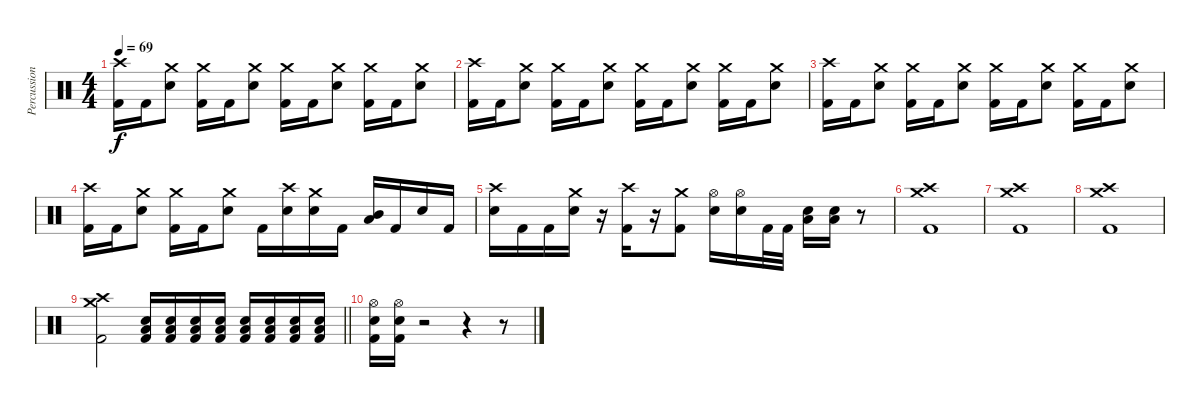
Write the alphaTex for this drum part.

\track ("Percussion" "Percussion") {instrument percussion}
\staff {score}
\articulation defaults
\ts (4 4)
\tempo 69
\clef neutral
\ks c
("Crash high (hit)" "Kick (hit) 2").16{dy f} "Kick (hit) 2".16 ("Crash medium (hit)" "Electric Snare (hit)").8 ("Crash medium (hit)" "Kick (hit) 2").16 "Kick (hit) 2".16 ("Crash medium (hit)" "Electric Snare (hit)").8 ("Crash medium (hit)" "Kick (hit) 2").16 "Kick (hit) 2".16 ("Crash medium (hit)" "Electric Snare (hit)").8 ("Crash medium (hit)" "Kick (hit) 2").16 "Kick (hit) 2".16 ("Crash medium (hit)" "Electric Snare (hit)").8 |
("Crash high (hit)" "Kick (hit) 2").16 "Kick (hit) 2".16 ("Crash medium (hit)" "Electric Snare (hit)").8 ("Crash medium (hit)" "Kick (hit) 2").16 "Kick (hit) 2".16 ("Crash medium (hit)" "Electric Snare (hit)").8 ("Crash medium (hit)" "Kick (hit) 2").16 "Kick (hit) 2".16 ("Crash medium (hit)" "Electric Snare (hit)").8 ("Crash medium (hit)" "Kick (hit) 2").16 "Kick (hit) 2".16 ("Crash medium (hit)" "Electric Snare (hit)").8 |
("Crash high (hit)" "Kick (hit) 2").16 "Kick (hit) 2".16 ("Crash medium (hit)" "Electric Snare (hit)").8 ("Crash medium (hit)" "Kick (hit) 2").16 "Kick (hit) 2".16 ("Crash medium (hit)" "Electric Snare (hit)").8 ("Crash medium (hit)" "Kick (hit) 2").16 "Kick (hit) 2".16 ("Crash medium (hit)" "Electric Snare (hit)").8 ("Crash medium (hit)" "Kick (hit) 2").16 "Kick (hit) 2".16 ("Crash medium (hit)" "Electric Snare (hit)").8 |
("Crash high (hit)" "Kick (hit) 2").16 "Kick (hit) 2".16 ("Crash medium (hit)" "Electric Snare (hit)").8 ("Crash medium (hit)" "Kick (hit) 2").16 "Kick (hit) 2".16 ("Crash medium (hit)" "Electric Snare (hit)").8 "Kick (hit) 2".16 ("Crash high (hit)" "Electric Snare (hit)").16 ("Crash medium (hit)" "Electric Snare (hit)").16 "Kick (hit) 2".16 ("Low Tom (hit)" "Mid Tom (hit)").16 "Kick (hit) 2".16 "Electric Snare (hit)".16 "Kick (hit) 2".16 |
("Crash high (hit)" "Electric Snare (hit)").16 "Kick (hit) 2".16 "Kick (hit) 2".16 ("Crash medium (hit)" "Electric Snare (hit)").16 r.16 ("Crash high (hit)" "Kick (hit) 2").16 r.16 ("Crash medium (hit)" "Kick (hit) 2").8 ("Hi-Hat (open)" "Electric Snare (hit)").16 ("Hi-Hat (open)" "Electric Snare (hit)").16 "Kick (hit) 2".32 "Kick (hit) 2".32 ("Low Floor Tom (hit)" "Electric Snare (hit)").16 ("Low Floor Tom (hit)" "Electric Snare (hit)").16 r.8 |
("Crash high (hit)" "Crash medium (hit)" "Kick (hit) 2").1 |
("Crash high (hit)" "Crash medium (hit)" "Kick (hit) 2").1 |
("Crash high (hit)" "Crash medium (hit)" "Kick (hit) 2").1 |
\barLineRight lightlight
("Crash high (hit)" "Crash medium (hit)" "Kick (hit) 2").2 ("Low Floor Tom (hit)" "Electric Snare (hit)" "Kick (hit) 2").16 ("Low Floor Tom (hit)" "Electric Snare (hit)" "Kick (hit) 2").16 ("Low Floor Tom (hit)" "Electric Snare (hit)" "Kick (hit) 2").16 ("Low Floor Tom (hit)" "Electric Snare (hit)" "Kick (hit) 2").16 ("Low Floor Tom (hit)" "Electric Snare (hit)" "Kick (hit) 2").16 ("Low Floor Tom (hit)" "Electric Snare (hit)" "Kick (hit) 2").16 ("Low Floor Tom (hit)" "Electric Snare (hit)" "Kick (hit) 2").16 ("Low Floor Tom (hit)" "Electric Snare (hit)" "Kick (hit) 2").16 |
("Hi-Hat (open)" "Electric Snare (hit)" "Kick (hit) 2").16 ("Hi-Hat (open)" "Electric Snare (hit)" "Kick (hit) 2").16 r.2 r.4 r.8
